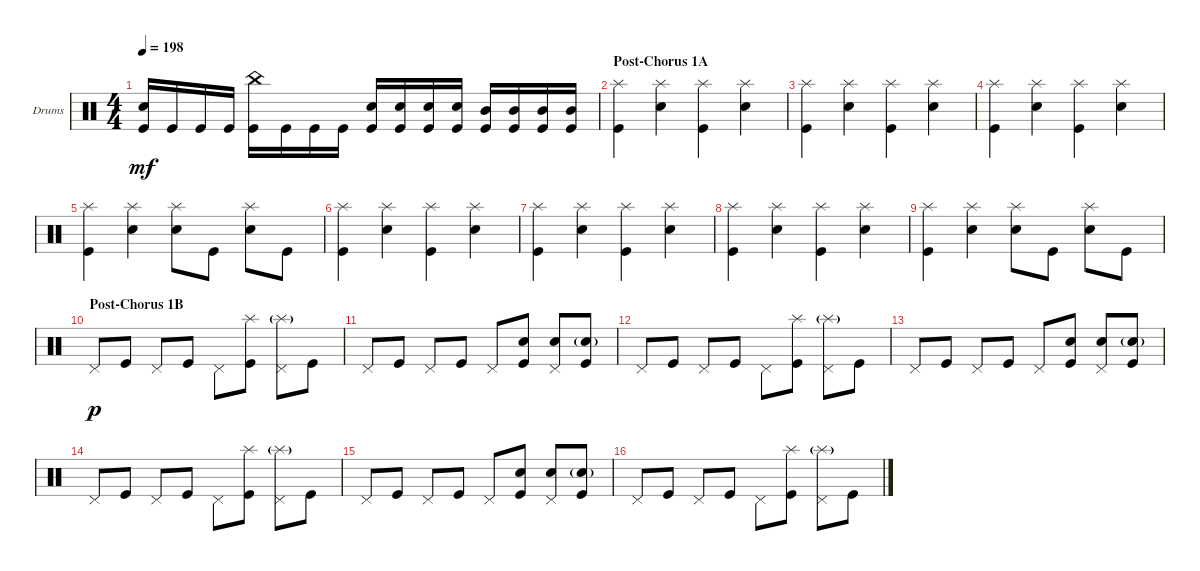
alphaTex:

\bracketExtendMode groupsimilarinstruments
\firstSystemTrackNameOrientation horizontal
\otherSystemsTrackNameOrientation horizontal
\track ("Drumkit" "Drums") {instrument percussion}
\staff {score}
\articulation defaults
\ts (4 4)
\tempo 198
\clef neutral
\ks c
("Kick (hit)" "Snare (hit) 2").16{dy mf} "Kick (hit)".16 "Kick (hit)".16 "Kick (hit)".16 ("Kick (hit)" "China (hit)").16 "Kick (hit)".16 "Kick (hit)".16 "Kick (hit)".16 ("Kick (hit)" "Snare (hit) 2").16 ("Kick (hit)" "Snare (hit) 2").16 ("Kick (hit)" "Snare (hit) 2").16 ("Kick (hit)" "Snare (hit) 2").16 ("Kick (hit)" "Mid Tom (hit)").16 ("Kick (hit)" "Mid Tom (hit)").16 ("Kick (hit)" "Mid Tom (hit)").16 ("Kick (hit)" "Mid Tom (hit)").16 |
\section ("" "Post-Chorus 1A")
("Splash (hit)" "Kick (hit)").4 ("Splash (hit)" "Snare (hit) 2").4 ("Splash (hit)" "Kick (hit)").4 ("Splash (hit)" "Snare (hit) 2").4 |
("Splash (hit)" "Kick (hit)").4 ("Splash (hit)" "Snare (hit) 2").4 ("Splash (hit)" "Kick (hit)").4 ("Splash (hit)" "Snare (hit) 2").4 |
("Splash (hit)" "Kick (hit)").4 ("Splash (hit)" "Snare (hit) 2").4 ("Splash (hit)" "Kick (hit)").4 ("Splash (hit)" "Snare (hit) 2").4 |
("Splash (hit)" "Kick (hit)").4 ("Splash (hit)" "Snare (hit) 2").4 ("Splash (hit)" "Snare (hit) 2").8 "Kick (hit)".8 ("Snare (hit) 2" "Splash (hit)").8 "Kick (hit)".8 |
("Splash (hit)" "Kick (hit)").4 ("Splash (hit)" "Snare (hit) 2").4 ("Splash (hit)" "Kick (hit)").4 ("Splash (hit)" "Snare (hit) 2").4 |
("Splash (hit)" "Kick (hit)").4 ("Splash (hit)" "Snare (hit) 2").4 ("Splash (hit)" "Kick (hit)").4 ("Splash (hit)" "Snare (hit) 2").4 |
("Splash (hit)" "Kick (hit)").4 ("Splash (hit)" "Snare (hit) 2").4 ("Splash (hit)" "Kick (hit)").4 ("Splash (hit)" "Snare (hit) 2").4 |
("Splash (hit)" "Kick (hit)").4 ("Splash (hit)" "Snare (hit) 2").4 ("Splash (hit)" "Snare (hit) 2").8 "Kick (hit)".8 ("Snare (hit) 2" "Splash (hit)").8 "Kick (hit)".8 |
\section ("" "Post-Chorus 1B")
"Pedal Hi-Hat (hit)".8{dy p} "Kick (hit)".8 "Pedal Hi-Hat (hit)".8 "Kick (hit)".8 "Pedal Hi-Hat (hit)".8 ("Kick (hit)" "Splash (hit)").8 ("Pedal Hi-Hat (hit)" "Splash (hit)"{g}).8 "Kick (hit)".8 |
"Pedal Hi-Hat (hit)".8 "Kick (hit)".8 "Pedal Hi-Hat (hit)".8 "Kick (hit)".8 "Pedal Hi-Hat (hit)".8 ("Kick (hit)" "Snare (hit) 2").8 ("Pedal Hi-Hat (hit)" "Snare (hit) 2").8 ("Kick (hit)" "Snare (hit) 2"{g}).8 |
"Pedal Hi-Hat (hit)".8 "Kick (hit)".8 "Pedal Hi-Hat (hit)".8 "Kick (hit)".8 "Pedal Hi-Hat (hit)".8 ("Kick (hit)" "Splash (hit)").8 ("Pedal Hi-Hat (hit)" "Splash (hit)"{g}).8 "Kick (hit)".8 |
"Pedal Hi-Hat (hit)".8 "Kick (hit)".8 "Pedal Hi-Hat (hit)".8 "Kick (hit)".8 "Pedal Hi-Hat (hit)".8 ("Kick (hit)" "Snare (hit) 2").8 ("Pedal Hi-Hat (hit)" "Snare (hit) 2").8 ("Kick (hit)" "Snare (hit) 2"{g}).8 |
"Pedal Hi-Hat (hit)".8 "Kick (hit)".8 "Pedal Hi-Hat (hit)".8 "Kick (hit)".8 "Pedal Hi-Hat (hit)".8 ("Kick (hit)" "Splash (hit)").8 ("Pedal Hi-Hat (hit)" "Splash (hit)"{g}).8 "Kick (hit)".8 |
"Pedal Hi-Hat (hit)".8 "Kick (hit)".8 "Pedal Hi-Hat (hit)".8 "Kick (hit)".8 "Pedal Hi-Hat (hit)".8 ("Kick (hit)" "Snare (hit) 2").8 ("Pedal Hi-Hat (hit)" "Snare (hit) 2").8 ("Kick (hit)" "Snare (hit) 2"{g}).8 |
"Pedal Hi-Hat (hit)".8 "Kick (hit)".8 "Pedal Hi-Hat (hit)".8 "Kick (hit)".8 "Pedal Hi-Hat (hit)".8 ("Kick (hit)" "Splash (hit)").8 ("Pedal Hi-Hat (hit)" "Splash (hit)"{g}).8 "Kick (hit)".8
